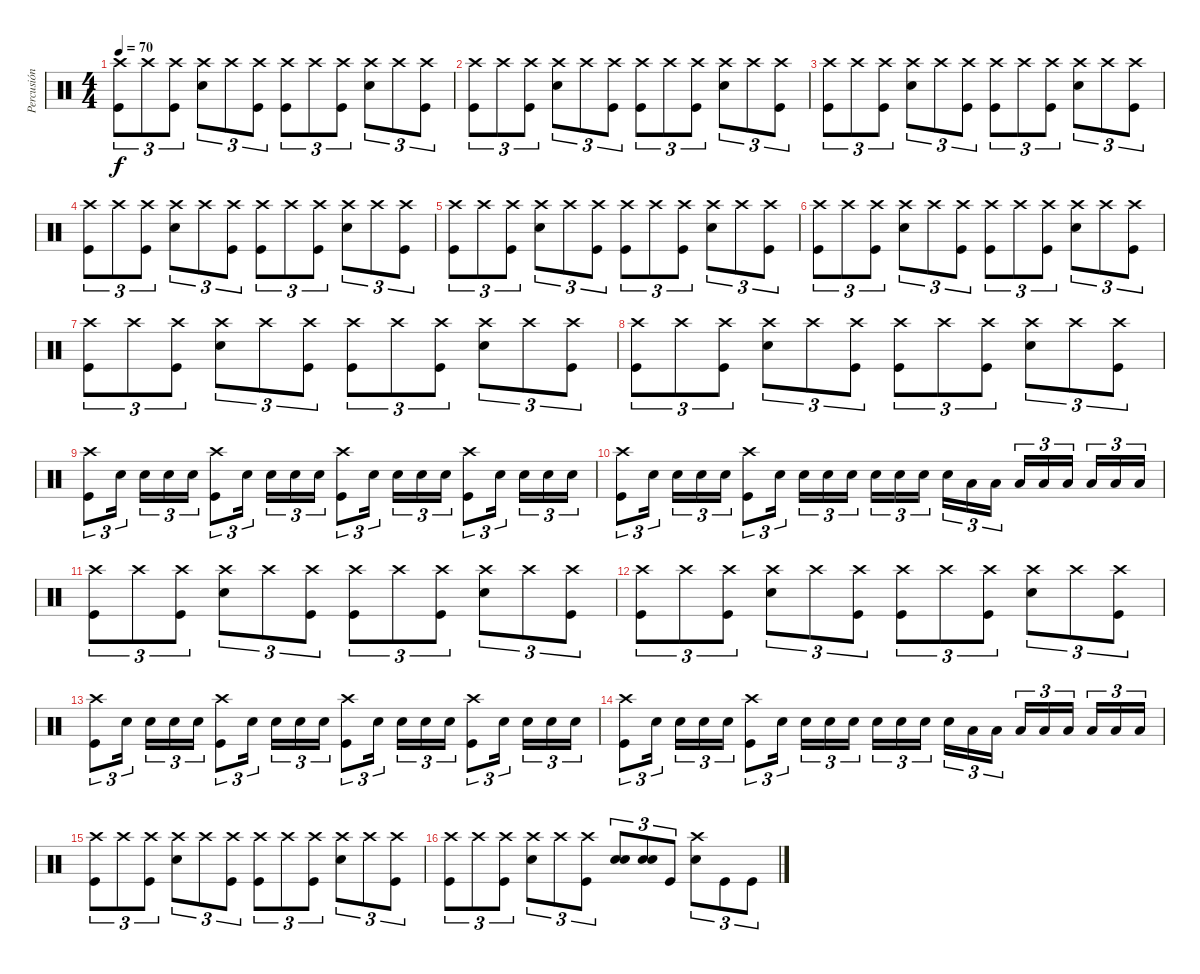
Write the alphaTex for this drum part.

\track ("Percusión" "Percusión") {instrument percussion}
\staff {score}
\articulation defaults
\ts (4 4)
\tempo 70
\clef neutral
\ks c
("Crash high (hit)" "Kick (hit)").8{tu (3 2) dy f} "Crash high (hit)".8{tu (3 2)} ("Crash high (hit)" "Kick (hit)").8{tu (3 2)} ("Crash high (hit)" "Snare (hit) 2").8{tu (3 2)} "Crash high (hit)".8{tu (3 2)} ("Crash high (hit)" "Kick (hit)").8{tu (3 2)} ("Crash high (hit)" "Kick (hit)").8{tu (3 2)} "Crash high (hit)".8{tu (3 2)} ("Crash high (hit)" "Kick (hit)").8{tu (3 2)} ("Crash high (hit)" "Snare (hit) 2").8{tu (3 2)} "Crash high (hit)".8{tu (3 2)} ("Crash high (hit)" "Kick (hit)").8{tu (3 2)} |
("Crash high (hit)" "Kick (hit)").8{tu (3 2)} "Crash high (hit)".8{tu (3 2)} ("Crash high (hit)" "Kick (hit)").8{tu (3 2)} ("Crash high (hit)" "Snare (hit) 2").8{tu (3 2)} "Crash high (hit)".8{tu (3 2)} ("Crash high (hit)" "Kick (hit)").8{tu (3 2)} ("Crash high (hit)" "Kick (hit)").8{tu (3 2)} "Crash high (hit)".8{tu (3 2)} ("Crash high (hit)" "Kick (hit)").8{tu (3 2)} ("Crash high (hit)" "Snare (hit) 2").8{tu (3 2)} "Crash high (hit)".8{tu (3 2)} ("Crash high (hit)" "Kick (hit)").8{tu (3 2)} |
("Crash high (hit)" "Kick (hit)").8{tu (3 2)} "Crash high (hit)".8{tu (3 2)} ("Crash high (hit)" "Kick (hit)").8{tu (3 2)} ("Crash high (hit)" "Snare (hit) 2").8{tu (3 2)} "Crash high (hit)".8{tu (3 2)} ("Crash high (hit)" "Kick (hit)").8{tu (3 2)} ("Crash high (hit)" "Kick (hit)").8{tu (3 2)} "Crash high (hit)".8{tu (3 2)} ("Crash high (hit)" "Kick (hit)").8{tu (3 2)} ("Crash high (hit)" "Snare (hit) 2").8{tu (3 2)} "Crash high (hit)".8{tu (3 2)} ("Crash high (hit)" "Kick (hit)").8{tu (3 2)} |
("Crash high (hit)" "Kick (hit)").8{tu (3 2)} "Crash high (hit)".8{tu (3 2)} ("Crash high (hit)" "Kick (hit)").8{tu (3 2)} ("Crash high (hit)" "Snare (hit) 2").8{tu (3 2)} "Crash high (hit)".8{tu (3 2)} ("Crash high (hit)" "Kick (hit)").8{tu (3 2)} ("Crash high (hit)" "Kick (hit)").8{tu (3 2)} "Crash high (hit)".8{tu (3 2)} ("Crash high (hit)" "Kick (hit)").8{tu (3 2)} ("Crash high (hit)" "Snare (hit) 2").8{tu (3 2)} "Crash high (hit)".8{tu (3 2)} ("Crash high (hit)" "Kick (hit)").8{tu (3 2)} |
("Crash high (hit)" "Kick (hit)").8{tu (3 2)} "Crash high (hit)".8{tu (3 2)} ("Crash high (hit)" "Kick (hit)").8{tu (3 2)} ("Crash high (hit)" "Snare (hit) 2").8{tu (3 2)} "Crash high (hit)".8{tu (3 2)} ("Crash high (hit)" "Kick (hit)").8{tu (3 2)} ("Crash high (hit)" "Kick (hit)").8{tu (3 2)} "Crash high (hit)".8{tu (3 2)} ("Crash high (hit)" "Kick (hit)").8{tu (3 2)} ("Crash high (hit)" "Snare (hit) 2").8{tu (3 2)} "Crash high (hit)".8{tu (3 2)} ("Crash high (hit)" "Kick (hit)").8{tu (3 2)} |
("Crash high (hit)" "Kick (hit)").8{tu (3 2)} "Crash high (hit)".8{tu (3 2)} ("Crash high (hit)" "Kick (hit)").8{tu (3 2)} ("Crash high (hit)" "Snare (hit) 2").8{tu (3 2)} "Crash high (hit)".8{tu (3 2)} ("Crash high (hit)" "Kick (hit)").8{tu (3 2)} ("Crash high (hit)" "Kick (hit)").8{tu (3 2)} "Crash high (hit)".8{tu (3 2)} ("Crash high (hit)" "Kick (hit)").8{tu (3 2)} ("Crash high (hit)" "Snare (hit) 2").8{tu (3 2)} "Crash high (hit)".8{tu (3 2)} ("Crash high (hit)" "Kick (hit)").8{tu (3 2)} |
("Crash high (hit)" "Kick (hit)").8{tu (3 2)} "Crash high (hit)".8{tu (3 2)} ("Crash high (hit)" "Kick (hit)").8{tu (3 2)} ("Crash high (hit)" "Snare (hit) 2").8{tu (3 2)} "Crash high (hit)".8{tu (3 2)} ("Crash high (hit)" "Kick (hit)").8{tu (3 2)} ("Crash high (hit)" "Kick (hit)").8{tu (3 2)} "Crash high (hit)".8{tu (3 2)} ("Crash high (hit)" "Kick (hit)").8{tu (3 2)} ("Crash high (hit)" "Snare (hit) 2").8{tu (3 2)} "Crash high (hit)".8{tu (3 2)} ("Crash high (hit)" "Kick (hit)").8{tu (3 2)} |
("Crash high (hit)" "Kick (hit)").8{tu (3 2)} "Crash high (hit)".8{tu (3 2)} ("Crash high (hit)" "Kick (hit)").8{tu (3 2)} ("Crash high (hit)" "Snare (hit) 2").8{tu (3 2)} "Crash high (hit)".8{tu (3 2)} ("Crash high (hit)" "Kick (hit)").8{tu (3 2)} ("Crash high (hit)" "Kick (hit)").8{tu (3 2)} "Crash high (hit)".8{tu (3 2)} ("Crash high (hit)" "Kick (hit)").8{tu (3 2)} ("Crash high (hit)" "Snare (hit) 2").8{tu (3 2)} "Crash high (hit)".8{tu (3 2)} ("Crash high (hit)" "Kick (hit)").8{tu (3 2)} |
("Kick (hit)" "Crash high (hit)").8{tu (3 2)} "Snare (hit) 2".16{tu (3 2) beam splitsecondary} "Snare (hit) 2".16{tu (3 2)} "Snare (hit) 2".16{tu (3 2)} "Snare (hit) 2".16{tu (3 2)} ("Kick (hit)" "Crash high (hit)").8{tu (3 2)} "Snare (hit) 2".16{tu (3 2) beam splitsecondary} "Snare (hit) 2".16{tu (3 2)} "Snare (hit) 2".16{tu (3 2)} "Snare (hit) 2".16{tu (3 2)} ("Kick (hit)" "Crash high (hit)").8{tu (3 2)} "Snare (hit) 2".16{tu (3 2) beam splitsecondary} "Snare (hit) 2".16{tu (3 2)} "Snare (hit) 2".16{tu (3 2)} "Snare (hit) 2".16{tu (3 2)} ("Kick (hit)" "Crash high (hit)").8{tu (3 2)} "Snare (hit) 2".16{tu (3 2) beam splitsecondary} "Snare (hit) 2".16{tu (3 2)} "Snare (hit) 2".16{tu (3 2)} "Snare (hit) 2".16{tu (3 2)} |
("Kick (hit)" "Crash high (hit)").8{tu (3 2)} "Snare (hit) 2".16{tu (3 2) beam splitsecondary} "Snare (hit) 2".16{tu (3 2)} "Snare (hit) 2".16{tu (3 2)} "Snare (hit) 2".16{tu (3 2)} ("Kick (hit)" "Crash high (hit)").8{tu (3 2)} "Snare (hit) 2".16{tu (3 2) beam splitsecondary} "Snare (hit) 2".16{tu (3 2)} "Snare (hit) 2".16{tu (3 2)} "Snare (hit) 2".16{tu (3 2)} "Snare (hit) 2".16{tu (3 2)} "Snare (hit) 2".16{tu (3 2)} "Snare (hit) 2".16{tu (3 2) beam splitsecondary} "Snare (hit) 2".16{tu (3 2)} "Low Tom (hit)".16{tu (3 2)} "Low Tom (hit)".16{tu (3 2)} "Low Tom (hit)".16{tu (3 2)} "Low Tom (hit)".16{tu (3 2)} "Low Floor Tom (hit)".16{tu (3 2) beam splitsecondary} "Low Floor Tom (hit)".16{tu (3 2)} "Low Floor Tom (hit)".16{tu (3 2)} "Low Floor Tom (hit)".16{tu (3 2)} |
("Crash high (hit)" "Kick (hit)").8{tu (3 2)} "Crash high (hit)".8{tu (3 2)} ("Crash high (hit)" "Kick (hit)").8{tu (3 2)} ("Crash high (hit)" "Snare (hit) 2").8{tu (3 2)} "Crash high (hit)".8{tu (3 2)} ("Crash high (hit)" "Kick (hit)").8{tu (3 2)} ("Crash high (hit)" "Kick (hit)").8{tu (3 2)} "Crash high (hit)".8{tu (3 2)} ("Crash high (hit)" "Kick (hit)").8{tu (3 2)} ("Crash high (hit)" "Snare (hit) 2").8{tu (3 2)} "Crash high (hit)".8{tu (3 2)} ("Crash high (hit)" "Kick (hit)").8{tu (3 2)} |
("Crash high (hit)" "Kick (hit)").8{tu (3 2)} "Crash high (hit)".8{tu (3 2)} ("Crash high (hit)" "Kick (hit)").8{tu (3 2)} ("Crash high (hit)" "Snare (hit) 2").8{tu (3 2)} "Crash high (hit)".8{tu (3 2)} ("Crash high (hit)" "Kick (hit)").8{tu (3 2)} ("Crash high (hit)" "Kick (hit)").8{tu (3 2)} "Crash high (hit)".8{tu (3 2)} ("Crash high (hit)" "Kick (hit)").8{tu (3 2)} ("Crash high (hit)" "Snare (hit) 2").8{tu (3 2)} "Crash high (hit)".8{tu (3 2)} ("Crash high (hit)" "Kick (hit)").8{tu (3 2)} |
("Kick (hit)" "Crash high (hit)").8{tu (3 2)} "Snare (hit) 2".16{tu (3 2) beam splitsecondary} "Snare (hit) 2".16{tu (3 2)} "Snare (hit) 2".16{tu (3 2)} "Snare (hit) 2".16{tu (3 2)} ("Kick (hit)" "Crash high (hit)").8{tu (3 2)} "Snare (hit) 2".16{tu (3 2) beam splitsecondary} "Snare (hit) 2".16{tu (3 2)} "Snare (hit) 2".16{tu (3 2)} "Snare (hit) 2".16{tu (3 2)} ("Kick (hit)" "Crash high (hit)").8{tu (3 2)} "Snare (hit) 2".16{tu (3 2) beam splitsecondary} "Snare (hit) 2".16{tu (3 2)} "Snare (hit) 2".16{tu (3 2)} "Snare (hit) 2".16{tu (3 2)} ("Kick (hit)" "Crash high (hit)").8{tu (3 2)} "Snare (hit) 2".16{tu (3 2) beam splitsecondary} "Snare (hit) 2".16{tu (3 2)} "Snare (hit) 2".16{tu (3 2)} "Snare (hit) 2".16{tu (3 2)} |
("Kick (hit)" "Crash high (hit)").8{tu (3 2)} "Snare (hit) 2".16{tu (3 2) beam splitsecondary} "Snare (hit) 2".16{tu (3 2)} "Snare (hit) 2".16{tu (3 2)} "Snare (hit) 2".16{tu (3 2)} ("Kick (hit)" "Crash high (hit)").8{tu (3 2)} "Snare (hit) 2".16{tu (3 2) beam splitsecondary} "Snare (hit) 2".16{tu (3 2)} "Snare (hit) 2".16{tu (3 2)} "Snare (hit) 2".16{tu (3 2)} "Snare (hit) 2".16{tu (3 2)} "Snare (hit) 2".16{tu (3 2)} "Snare (hit) 2".16{tu (3 2) beam splitsecondary} "Snare (hit) 2".16{tu (3 2)} "Low Tom (hit)".16{tu (3 2)} "Low Tom (hit)".16{tu (3 2)} "Low Tom (hit)".16{tu (3 2)} "Low Tom (hit)".16{tu (3 2)} "Low Floor Tom (hit)".16{tu (3 2) beam splitsecondary} "Low Floor Tom (hit)".16{tu (3 2)} "Low Floor Tom (hit)".16{tu (3 2)} "Low Floor Tom (hit)".16{tu (3 2)} |
("Crash high (hit)" "Kick (hit)").8{tu (3 2)} "Crash high (hit)".8{tu (3 2)} ("Crash high (hit)" "Kick (hit)").8{tu (3 2)} ("Crash high (hit)" "Snare (hit) 2").8{tu (3 2)} "Crash high (hit)".8{tu (3 2)} ("Crash high (hit)" "Kick (hit)").8{tu (3 2)} ("Crash high (hit)" "Kick (hit)").8{tu (3 2)} "Crash high (hit)".8{tu (3 2)} ("Crash high (hit)" "Kick (hit)").8{tu (3 2)} ("Crash high (hit)" "Snare (hit) 2").8{tu (3 2)} "Crash high (hit)".8{tu (3 2)} ("Crash high (hit)" "Kick (hit)").8{tu (3 2)} |
("Crash high (hit)" "Kick (hit)").8{tu (3 2)} "Crash high (hit)".8{tu (3 2)} ("Crash high (hit)" "Kick (hit)").8{tu (3 2)} ("Crash high (hit)" "Snare (hit) 2").8{tu (3 2)} "Crash high (hit)".8{tu (3 2)} ("Crash high (hit)" "Kick (hit)").8{tu (3 2)} ("Snare (hit) 2" "Snare (hit) 2").8{tu (3 2)} ("Snare (hit) 2" "Snare (hit) 2").8{tu (3 2)} "Kick (hit)".8{tu (3 2)} ("Snare (hit) 2" "Crash high (hit)").8{tu (3 2)} "Kick (hit)".8{tu (3 2)} "Kick (hit)".8{tu (3 2)}
